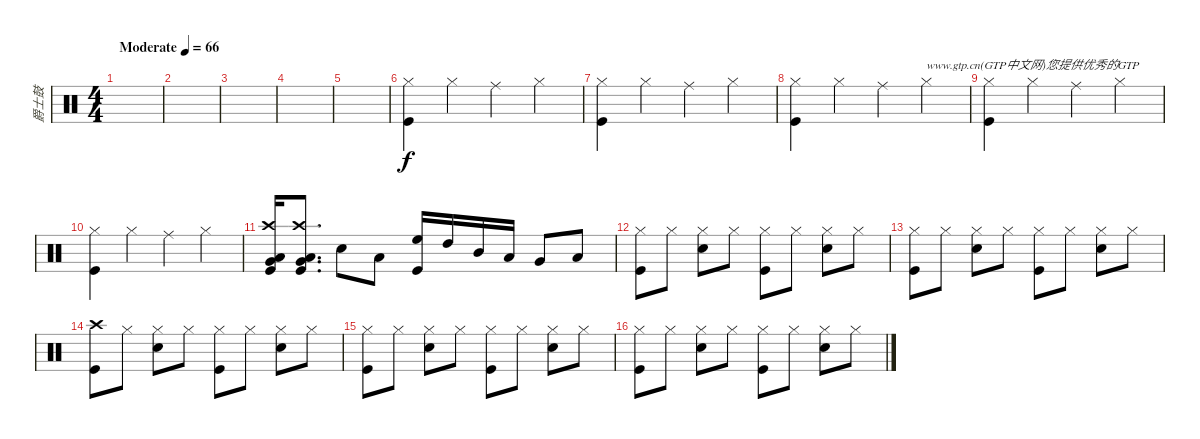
\track ("爵士鼓" "爵士鼓") {instrument percussion}
\staff {score}
\articulation defaults
\ts (4 4)
\tempo (66 "Moderate")
\clef neutral
\ks c
|
|
|
|
|
("Hi-Hat (closed)" "Kick (hit)").4 "Hi-Hat (closed)".4 "Ride (middle)".4 "Hi-Hat (closed)".4 |
("Hi-Hat (closed)" "Kick (hit)").4 "Hi-Hat (closed)".4 "Ride (middle)".4 "Hi-Hat (closed)".4 |
("Hi-Hat (closed)" "Kick (hit)").4 "Hi-Hat (closed)".4 "Ride (middle)".4 "Hi-Hat (closed)".4{txt "www.gtp.cn(GTP中文网)您提供优秀的GTP"} |
("Hi-Hat (closed)" "Kick (hit)").4 "Hi-Hat (closed)".4 "Ride (middle)".4 "Hi-Hat (closed)".4 |
("Hi-Hat (closed)" "Kick (hit)").4 "Hi-Hat (closed)".4 "Ride (middle)".4 "Hi-Hat (closed)".4 |
("Crash high (hit)" "Low Tom (hit)" "Very Low Tom (hit)" "Kick (hit)").16 ("Crash high (hit)" "Low Tom (hit)" "Very Low Tom (hit)" "Kick (hit)").8{d} "Snare (hit) 2".8 "Low Floor Tom (hit)".8 ("High Floor Tom (hit)" "Kick (hit)").16 "High Tom (hit)".16 "Mid Tom (hit)".16 "Low Tom (hit)".16 "Very Low Tom (hit)".8 "Low Floor Tom (hit)".8 |
("Hi-Hat (closed)" "Kick (hit)").8 "Hi-Hat (closed)".8 ("Hi-Hat (closed)" "Snare (hit) 2").8 "Hi-Hat (closed)".8 ("Hi-Hat (closed)" "Kick (hit)").8 "Hi-Hat (closed)".8 ("Hi-Hat (closed)" "Snare (hit) 2").8 "Hi-Hat (closed)".8 |
("Hi-Hat (closed)" "Kick (hit)").8 "Hi-Hat (closed)".8 ("Hi-Hat (closed)" "Snare (hit) 2").8 "Hi-Hat (closed)".8 ("Hi-Hat (closed)" "Kick (hit)").8 "Hi-Hat (closed)".8 ("Hi-Hat (closed)" "Snare (hit) 2").8 "Hi-Hat (closed)".8 |
("Crash high (hit)" "Kick (hit)").8 "Hi-Hat (closed)".8 ("Hi-Hat (closed)" "Snare (hit) 2").8 "Hi-Hat (closed)".8 ("Hi-Hat (closed)" "Kick (hit)").8 "Hi-Hat (closed)".8 ("Hi-Hat (closed)" "Snare (hit) 2").8 "Hi-Hat (closed)".8 |
("Hi-Hat (closed)" "Kick (hit)").8 "Hi-Hat (closed)".8 ("Hi-Hat (closed)" "Snare (hit) 2").8 "Hi-Hat (closed)".8 ("Hi-Hat (closed)" "Kick (hit)").8 "Hi-Hat (closed)".8 ("Hi-Hat (closed)" "Snare (hit) 2").8 "Hi-Hat (closed)".8 |
("Hi-Hat (closed)" "Kick (hit)").8 "Hi-Hat (closed)".8 ("Hi-Hat (closed)" "Snare (hit) 2").8 "Hi-Hat (closed)".8 ("Hi-Hat (closed)" "Kick (hit)").8 "Hi-Hat (closed)".8 ("Hi-Hat (closed)" "Snare (hit) 2").8 "Hi-Hat (closed)".8
